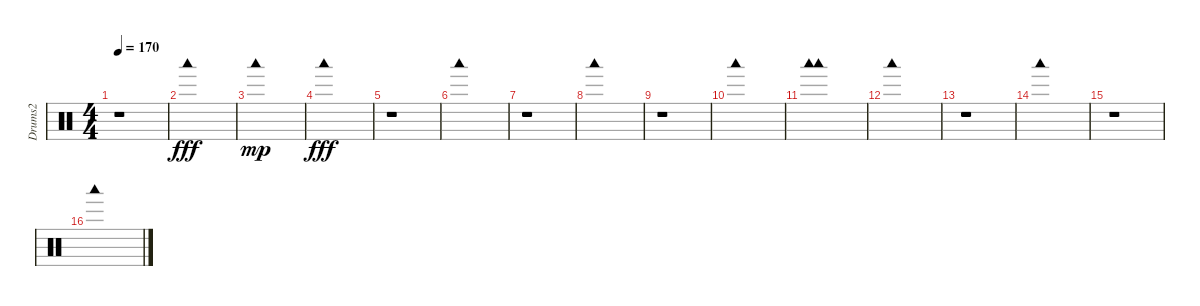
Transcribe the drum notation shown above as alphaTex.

\track ("Drums2" "Drums2") {instrument percussion}
\staff {score}
\articulation defaults
\ts (4 4)
\tempo 170
\clef neutral
\ks c
r.1{dy fff} |
"Woodblock low (hit)".1 |
"Woodblock low (hit)".1{dy mp} |
"Woodblock low (hit)".1{dy fff} |
r.1 |
"Woodblock low (hit)".1 |
r.1 |
"Woodblock low (hit)".1 |
r.1 |
"Woodblock low (hit)".1 |
("Woodblock low (hit)" "Woodblock low (hit)").1 |
"Woodblock low (hit)".1 |
r.1 |
"Woodblock low (hit)".1 |
r.1 |
"Woodblock low (hit)".1
